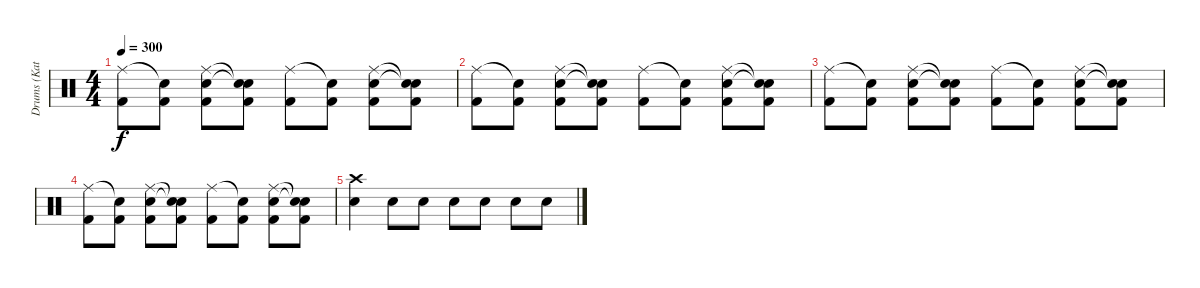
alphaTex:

\track ("Drums (Katsuji)" "Drums (Kat") {instrument percussion}
\staff {score}
\articulation defaults
\ts (4 4)
\tempo 300
\clef neutral
\ks c
("Ride (middle)" "Kick (hit) 2").8{dy f} ("Snare (hit)"{t} "Kick (hit) 2").8 ("Ride (middle)" "Snare (hit) 2" "Kick (hit) 2").8 ("Snare (hit)"{t} "Snare (hit)"{t} "Kick (hit) 2").8 ("Ride (middle)" "Kick (hit) 2").8 ("Snare (hit)"{t} "Kick (hit) 2").8 ("Ride (middle)" "Snare (hit) 2" "Kick (hit) 2").8 ("Snare (hit)"{t} "Snare (hit)"{t} "Kick (hit) 2").8 |
("Ride (middle)" "Kick (hit) 2").8 ("Snare (hit)"{t} "Kick (hit) 2").8 ("Ride (middle)" "Snare (hit) 2" "Kick (hit) 2").8 ("Snare (hit)"{t} "Snare (hit)"{t} "Kick (hit) 2").8 ("Ride (middle)" "Kick (hit) 2").8 ("Snare (hit)"{t} "Kick (hit) 2").8 ("Ride (middle)" "Snare (hit) 2" "Kick (hit) 2").8 ("Snare (hit)"{t} "Snare (hit)"{t} "Kick (hit) 2").8 |
("Ride (middle)" "Kick (hit) 2").8 ("Snare (hit)"{t} "Kick (hit) 2").8 ("Ride (middle)" "Snare (hit) 2" "Kick (hit) 2").8 ("Snare (hit)"{t} "Snare (hit)"{t} "Kick (hit) 2").8 ("Ride (middle)" "Kick (hit) 2").8 ("Snare (hit)"{t} "Kick (hit) 2").8 ("Ride (middle)" "Snare (hit) 2" "Kick (hit) 2").8 ("Snare (hit)"{t} "Snare (hit)"{t} "Kick (hit) 2").8 |
("Ride (middle)" "Kick (hit) 2").8 ("Snare (hit)"{t} "Kick (hit) 2").8 ("Ride (middle)" "Snare (hit) 2" "Kick (hit) 2").8 ("Snare (hit)"{t} "Snare (hit)"{t} "Kick (hit) 2").8 ("Ride (middle)" "Kick (hit) 2").8 ("Snare (hit)"{t} "Kick (hit) 2").8 ("Ride (middle)" "Snare (hit) 2" "Kick (hit) 2").8 ("Snare (hit)"{t} "Snare (hit)"{t} "Kick (hit) 2").8 |
("Crash high (hit)" "Snare (hit) 2").4 "Snare (hit) 2".8 "Snare (hit) 2".8 "Snare (hit) 2".8 "Snare (hit) 2".8 "Snare (hit) 2".8 "Snare (hit) 2".8
